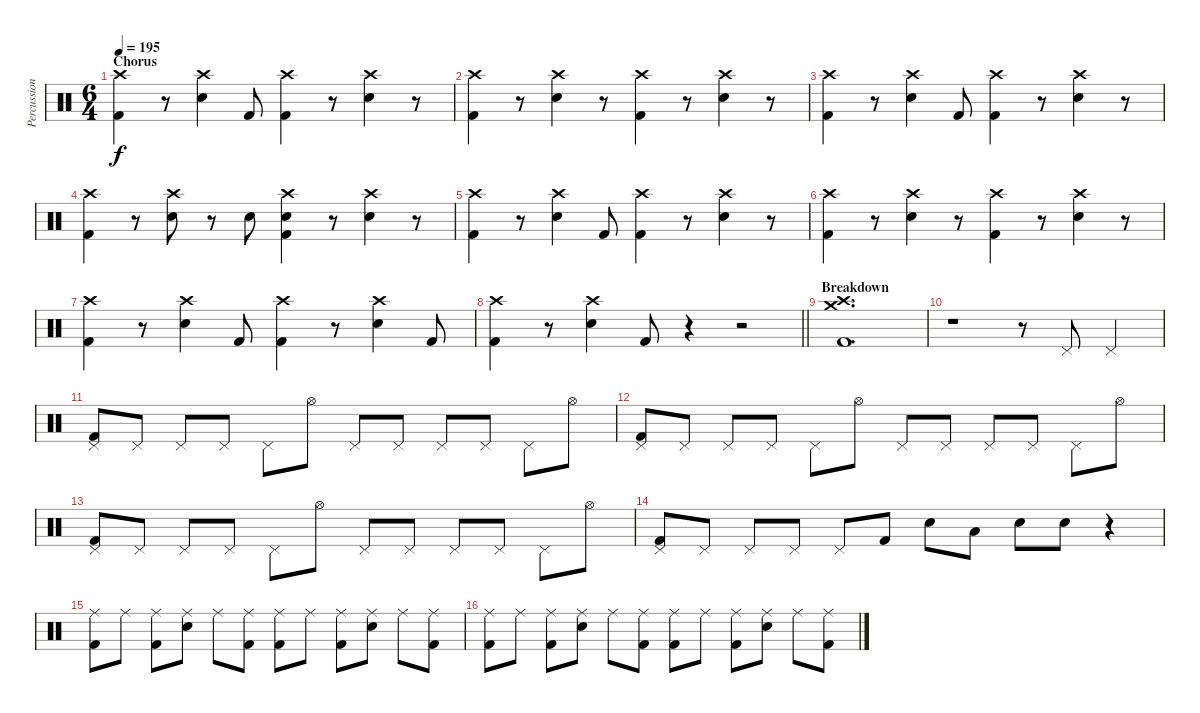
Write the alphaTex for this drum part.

\track ("Percussion" "Percussion") {instrument percussion}
\staff {score}
\articulation defaults
\ts (6 4)
\section ("" "Chorus")
\tempo 195
\clef neutral
\ks c
("Crash high (hit)" "Kick (hit) 2").4{dy f} r.8 ("Crash high (hit)" "Electric Snare (hit)").4 "Kick (hit) 2".8 ("Crash high (hit)" "Kick (hit) 2").4 r.8 ("Crash high (hit)" "Electric Snare (hit)").4 r.8 |
("Crash high (hit)" "Kick (hit) 2").4 r.8 ("Crash high (hit)" "Electric Snare (hit)").4 r.8 ("Crash high (hit)" "Kick (hit) 2").4 r.8 ("Crash high (hit)" "Electric Snare (hit)").4 r.8 |
("Crash high (hit)" "Kick (hit) 2").4 r.8 ("Crash high (hit)" "Electric Snare (hit)").4 "Kick (hit) 2".8 ("Crash high (hit)" "Kick (hit) 2").4 r.8 ("Crash high (hit)" "Electric Snare (hit)").4 r.8 |
("Crash high (hit)" "Kick (hit) 2").4 r.8 ("Crash high (hit)" "Electric Snare (hit)").8 r.8 "Electric Snare (hit)".8 ("Crash high (hit)" "Electric Snare (hit)" "Kick (hit) 2").4 r.8 ("Crash high (hit)" "Electric Snare (hit)").4 r.8 |
("Crash high (hit)" "Kick (hit) 2").4 r.8 ("Crash high (hit)" "Electric Snare (hit)").4 "Kick (hit) 2".8 ("Crash high (hit)" "Kick (hit) 2").4 r.8 ("Crash high (hit)" "Electric Snare (hit)").4 r.8 |
("Crash high (hit)" "Kick (hit) 2").4 r.8 ("Crash high (hit)" "Electric Snare (hit)").4 r.8 ("Crash high (hit)" "Kick (hit) 2").4 r.8 ("Crash high (hit)" "Electric Snare (hit)").4 r.8 |
("Crash high (hit)" "Kick (hit) 2").4 r.8 ("Crash high (hit)" "Electric Snare (hit)").4 "Kick (hit) 2".8 ("Crash high (hit)" "Kick (hit) 2").4 r.8 ("Crash high (hit)" "Electric Snare (hit)").4 "Kick (hit) 2".8 |
\barLineRight lightlight
("Crash high (hit)" "Kick (hit) 2").4 r.8 ("Crash high (hit)" "Electric Snare (hit)").4 "Kick (hit) 2".8 r.4 r.2 |
\section ("" "Breakdown")
("Crash high (hit)" "Crash medium (hit)" "Kick (hit) 2").1{d} |
r.1 r.8 "Pedal Hi-Hat (hit)".8 "Pedal Hi-Hat (hit)".4 |
("Pedal Hi-Hat (hit)" "Kick (hit) 2").8 "Pedal Hi-Hat (hit)".8 "Pedal Hi-Hat (hit)".8 "Pedal Hi-Hat (hit)".8 "Pedal Hi-Hat (hit)".8 "Hi-Hat (open)".8 "Pedal Hi-Hat (hit)".8 "Pedal Hi-Hat (hit)".8 "Pedal Hi-Hat (hit)".8 "Pedal Hi-Hat (hit)".8 "Pedal Hi-Hat (hit)".8 "Hi-Hat (open)".8 |
("Pedal Hi-Hat (hit)" "Kick (hit) 2").8 "Pedal Hi-Hat (hit)".8 "Pedal Hi-Hat (hit)".8 "Pedal Hi-Hat (hit)".8 "Pedal Hi-Hat (hit)".8 "Hi-Hat (open)".8 "Pedal Hi-Hat (hit)".8 "Pedal Hi-Hat (hit)".8 "Pedal Hi-Hat (hit)".8 "Pedal Hi-Hat (hit)".8 "Pedal Hi-Hat (hit)".8 "Hi-Hat (open)".8 |
("Pedal Hi-Hat (hit)" "Kick (hit) 2").8 "Pedal Hi-Hat (hit)".8 "Pedal Hi-Hat (hit)".8 "Pedal Hi-Hat (hit)".8 "Pedal Hi-Hat (hit)".8 "Hi-Hat (open)".8 "Pedal Hi-Hat (hit)".8 "Pedal Hi-Hat (hit)".8 "Pedal Hi-Hat (hit)".8 "Pedal Hi-Hat (hit)".8 "Pedal Hi-Hat (hit)".8 "Hi-Hat (open)".8 |
("Pedal Hi-Hat (hit)" "Kick (hit) 2").8 "Pedal Hi-Hat (hit)".8 "Pedal Hi-Hat (hit)".8 "Pedal Hi-Hat (hit)".8 "Pedal Hi-Hat (hit)".8 "Kick (hit) 2".8 "Electric Snare (hit)".8 "Low Floor Tom (hit)".8 "Electric Snare (hit)".8 "Electric Snare (hit)".8 r.4 |
("Ride (middle)" "Kick (hit) 2").8 "Ride (middle)".8 ("Ride (middle)" "Kick (hit) 2").8 ("Ride (middle)" "Electric Snare (hit)").8 "Ride (middle)".8 ("Ride (middle)" "Kick (hit) 2").8 ("Ride (middle)" "Kick (hit) 2").8 "Ride (middle)".8 ("Ride (middle)" "Kick (hit) 2").8 ("Ride (middle)" "Electric Snare (hit)").8 "Ride (middle)".8 ("Ride (middle)" "Kick (hit) 2").8 |
("Ride (middle)" "Kick (hit) 2").8 "Ride (middle)".8 ("Ride (middle)" "Kick (hit) 2").8 ("Ride (middle)" "Electric Snare (hit)").8 "Ride (middle)".8 ("Ride (middle)" "Kick (hit) 2").8 ("Ride (middle)" "Kick (hit) 2").8 "Ride (middle)".8 ("Ride (middle)" "Kick (hit) 2").8 ("Ride (middle)" "Electric Snare (hit)").8 "Ride (middle)".8 ("Ride (middle)" "Kick (hit) 2").8
